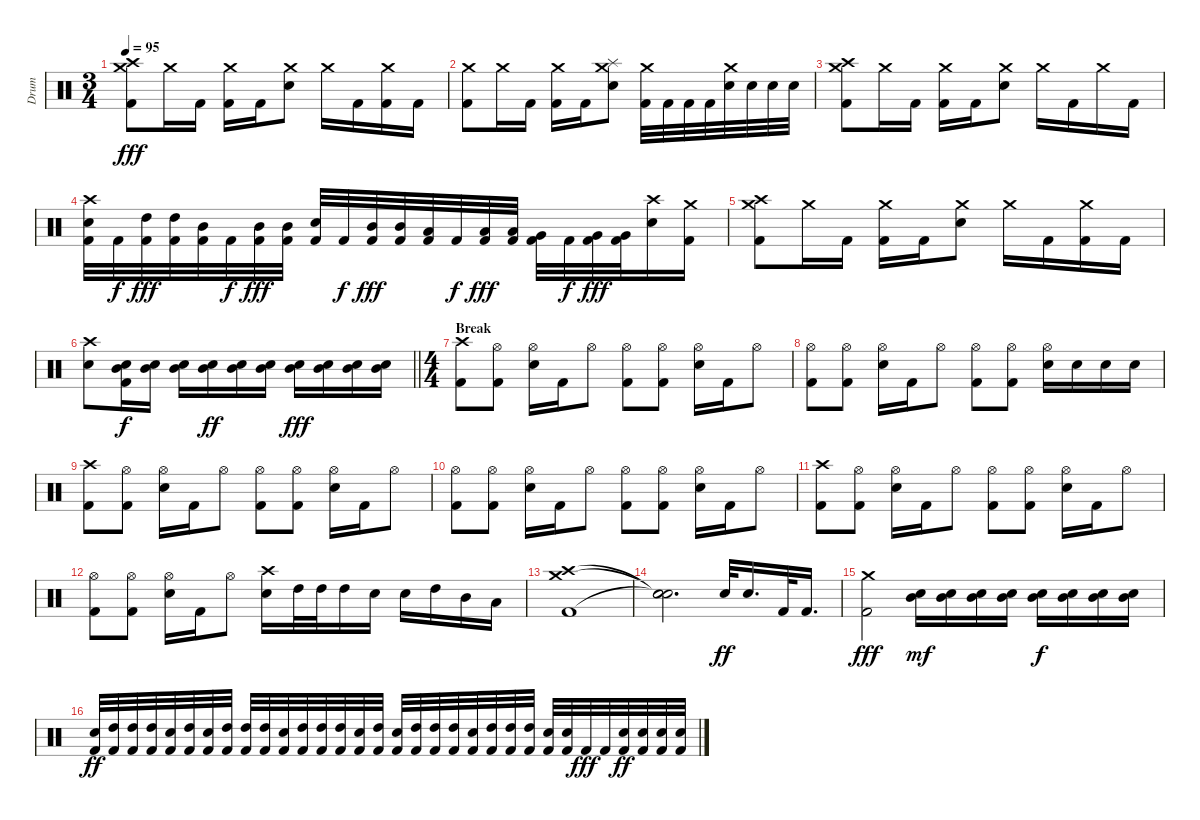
\track ("Drum" "Drum") {instrument percussion}
\staff {score}
\articulation defaults
\ts (3 4)
\tempo 95
\clef neutral
\ks c
("Crash medium (hit)" "Crash high (hit)" "Kick (hit) 2").8{dy fff} "Crash medium (hit)".16 "Kick (hit) 2".16 ("Crash medium (hit)" "Kick (hit) 2").16 "Kick (hit) 2".16 ("Crash medium (hit)" "Electric Snare (hit)").8 "Crash medium (hit)".16 "Kick (hit) 2".16 ("Crash medium (hit)" "Kick (hit) 2").16 "Kick (hit) 2".16 |
("Crash medium (hit)" "Kick (hit) 2").8 "Crash medium (hit)".16 "Kick (hit) 2".16 ("Crash medium (hit)" "Kick (hit) 2").16 "Kick (hit) 2".16 ("Splash (hit)" "Crash medium (hit)" "Electric Snare (hit)").8 ("Crash medium (hit)" "Kick (hit) 2").32 "Kick (hit) 2".32 "Kick (hit) 2".32 "Kick (hit) 2".32 ("Crash medium (hit)" "Electric Snare (hit)").32 "Electric Snare (hit)".32 "Electric Snare (hit)".32 "Electric Snare (hit)".32 |
("Crash high (hit)" "Crash medium (hit)" "Kick (hit) 2").8 "Crash medium (hit)".16 "Kick (hit) 2".16 ("Crash medium (hit)" "Kick (hit) 2").16 "Kick (hit) 2".16 ("Crash medium (hit)" "Electric Snare (hit)").8 "Crash medium (hit)".16 "Kick (hit) 2".16 "Crash medium (hit)".16 "Kick (hit) 2".16 |
("Crash high (hit)" "Electric Snare (hit)" "Kick (hit) 2").32 "Kick (hit) 2".32{dy f} ("High Tom (hit)" "Kick (hit) 2").32{dy fff} ("High Tom (hit)" "Kick (hit) 2").32 ("Mid Tom (hit)" "Kick (hit) 2").32 "Kick (hit) 2".32{dy f} ("Mid Tom (hit)" "Kick (hit) 2").32{dy fff} ("Mid Tom (hit)" "Kick (hit) 2").32 ("Electric Snare (hit)" "Kick (hit) 2").32 "Kick (hit) 2".32{dy f} ("Mid Tom (hit)" "Kick (hit) 2").32{dy fff} ("Mid Tom (hit)" "Kick (hit) 2").32 ("Low Tom (hit)" "Kick (hit) 2").32 "Kick (hit) 2".32{dy f} ("Low Tom (hit)" "Kick (hit) 2").32{dy fff} ("Low Tom (hit)" "Kick (hit) 2").32 ("Very Low Tom (hit)" "Kick (hit) 2").32 "Kick (hit) 2".32{dy f} ("Very Low Tom (hit)" "Kick (hit) 2").32{dy fff} ("Very Low Tom (hit)" "Kick (hit) 2").32 ("Crash high (hit)" "Electric Snare (hit)").16 ("Crash medium (hit)" "Kick (hit) 2").16 |
("Crash medium (hit)" "Crash high (hit)" "Kick (hit) 2").8 "Crash medium (hit)".16 "Kick (hit) 2".16 ("Crash medium (hit)" "Kick (hit) 2").16 "Kick (hit) 2".16 ("Crash medium (hit)" "Electric Snare (hit)").8 "Crash medium (hit)".16 "Kick (hit) 2".16 ("Crash medium (hit)" "Kick (hit) 2").16 "Kick (hit) 2".16 |
\barLineRight lightlight
("Crash high (hit)" "Electric Snare (hit)").8 ("Electric Snare (hit)" "Mid Tom (hit)" "Kick (hit) 2").16{dy f} ("Electric Snare (hit)" "Mid Tom (hit)").16 ("Electric Snare (hit)" "Mid Tom (hit)").16 ("Electric Snare (hit)" "Mid Tom (hit)").16{dy ff} ("Electric Snare (hit)" "Mid Tom (hit)").16 ("Electric Snare (hit)" "Mid Tom (hit)").16 ("Electric Snare (hit)" "Mid Tom (hit)").16{dy fff} ("Electric Snare (hit)" "Mid Tom (hit)").16 ("Electric Snare (hit)" "Mid Tom (hit)").16 ("Electric Snare (hit)" "Mid Tom (hit)").16 |
\ts (4 4)
\section ("" "Break")
("Crash high (hit)" "Kick (hit) 2").8 ("Hi-Hat (open)" "Kick (hit) 2").8 ("Hi-Hat (open)" "Electric Snare (hit)").16 "Kick (hit) 2".16 "Hi-Hat (open)".8 ("Hi-Hat (open)" "Kick (hit) 2").8 ("Hi-Hat (open)" "Kick (hit) 2").8 ("Hi-Hat (open)" "Electric Snare (hit)").16 "Kick (hit) 2".16 "Hi-Hat (open)".8 |
("Hi-Hat (open)" "Kick (hit) 2").8 ("Hi-Hat (open)" "Kick (hit) 2").8 ("Hi-Hat (open)" "Electric Snare (hit)").16 "Kick (hit) 2".16 "Hi-Hat (open)".8 ("Hi-Hat (open)" "Kick (hit) 2").8 ("Hi-Hat (open)" "Kick (hit) 2").8 ("Hi-Hat (open)" "Electric Snare (hit)").16 "Electric Snare (hit)".16 "Electric Snare (hit)".16 "Electric Snare (hit)".16 |
("Crash high (hit)" "Kick (hit) 2").8 ("Hi-Hat (open)" "Kick (hit) 2").8 ("Hi-Hat (open)" "Electric Snare (hit)").16 "Kick (hit) 2".16 "Hi-Hat (open)".8 ("Hi-Hat (open)" "Kick (hit) 2").8 ("Hi-Hat (open)" "Kick (hit) 2").8 ("Hi-Hat (open)" "Electric Snare (hit)").16 "Kick (hit) 2".16 "Hi-Hat (open)".8 |
("Hi-Hat (open)" "Kick (hit) 2").8 ("Hi-Hat (open)" "Kick (hit) 2").8 ("Hi-Hat (open)" "Electric Snare (hit)").16 "Kick (hit) 2".16 "Hi-Hat (open)".8 ("Hi-Hat (open)" "Kick (hit) 2").8 ("Hi-Hat (open)" "Kick (hit) 2").8 ("Hi-Hat (open)" "Electric Snare (hit)").16 "Kick (hit) 2".16 "Hi-Hat (open)".8 |
("Crash high (hit)" "Kick (hit) 2").8 ("Hi-Hat (open)" "Kick (hit) 2").8 ("Hi-Hat (open)" "Electric Snare (hit)").16 "Kick (hit) 2".16 "Hi-Hat (open)".8 ("Hi-Hat (open)" "Kick (hit) 2").8 ("Hi-Hat (open)" "Kick (hit) 2").8 ("Hi-Hat (open)" "Electric Snare (hit)").16 "Kick (hit) 2".16 "Hi-Hat (open)".8 |
("Hi-Hat (open)" "Kick (hit) 2").8 ("Hi-Hat (open)" "Kick (hit) 2").8 ("Hi-Hat (open)" "Electric Snare (hit)").16 "Kick (hit) 2".16 "Hi-Hat (open)".8 ("Crash high (hit)" "Electric Snare (hit)").16 "High Tom (hit)".32 "High Tom (hit)".32 "High Tom (hit)".16 "Electric Snare (hit)".16 "Electric Snare (hit)".16 "High Tom (hit)".16 "Mid Tom (hit)".16 "Low Tom (hit)".16 |
("Crash medium (hit)" "Crash high (hit)" "Kick (hit) 2").1 |
("Snare (hit)"{t} "Snare (hit)"{t} "Snare (hit)"{t}).2{d} "Electric Snare (hit)".32{dy ff} "Electric Snare (hit)".16{d} "Kick (hit) 2".32 "Kick (hit) 2".16{d} |
("Crash medium (hit)" "Kick (hit) 2").2{dy fff} ("Electric Snare (hit)" "Mid Tom (hit)").16{dy mf} ("Electric Snare (hit)" "Mid Tom (hit)").16 ("Electric Snare (hit)" "Mid Tom (hit)").16 ("Electric Snare (hit)" "Mid Tom (hit)").16 ("Electric Snare (hit)" "Mid Tom (hit)").16{dy f} ("Electric Snare (hit)" "Mid Tom (hit)").16 ("Electric Snare (hit)" "Mid Tom (hit)").16 ("Electric Snare (hit)" "Mid Tom (hit)").16 |
("Electric Snare (hit)" "Kick (hit) 2").32{dy ff} ("High Tom (hit)" "Kick (hit) 2").32 ("High Tom (hit)" "Kick (hit) 2").32 ("High Tom (hit)" "Kick (hit) 2").32 ("Electric Snare (hit)" "Kick (hit) 2").32 ("High Tom (hit)" "Kick (hit) 2").32 ("Electric Snare (hit)" "Kick (hit) 2").32 ("High Tom (hit)" "Kick (hit) 2").32 ("High Tom (hit)" "Kick (hit) 2").32 ("High Tom (hit)" "Kick (hit) 2").32 ("Electric Snare (hit)" "Kick (hit) 2").32 ("High Tom (hit)" "Kick (hit) 2").32 ("High Tom (hit)" "Kick (hit) 2").32 ("High Tom (hit)" "Kick (hit) 2").32 ("Electric Snare (hit)" "Kick (hit) 2").32 ("High Tom (hit)" "Kick (hit) 2").32 ("Electric Snare (hit)" "Kick (hit) 2").32 ("High Tom (hit)" "Kick (hit) 2").32 ("High Tom (hit)" "Kick (hit) 2").32 ("High Tom (hit)" "Kick (hit) 2").32 ("Electric Snare (hit)" "Kick (hit) 2").32 ("High Tom (hit)" "Kick (hit) 2").32 ("High Tom (hit)" "Kick (hit) 2").32 ("High Tom (hit)" "Kick (hit) 2").32 ("Electric Snare (hit)" "Kick (hit) 2").32 ("Electric Snare (hit)" "Kick (hit) 2").32 "Kick (hit) 2".32{dy fff} "Kick (hit) 2".32 ("Electric Snare (hit)" "Kick (hit) 2").32{dy ff} ("Electric Snare (hit)" "Kick (hit) 2").32 ("Electric Snare (hit)" "Kick (hit) 2").32 ("Electric Snare (hit)" "Kick (hit) 2").32
